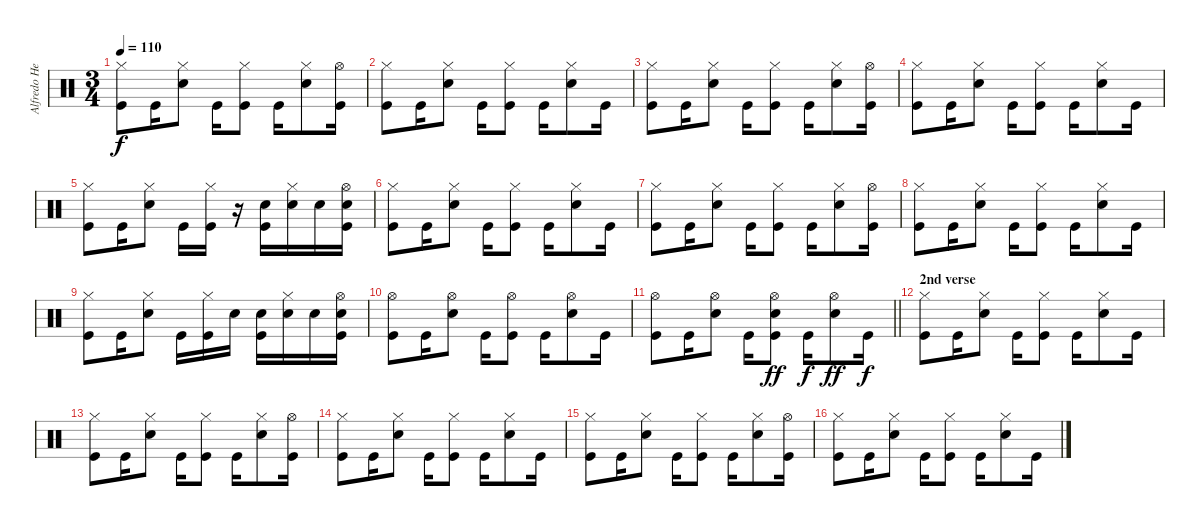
\track ("Alfredo Hernandez" "Alfredo He") {instrument percussion}
\staff {score}
\articulation defaults
\ts (3 4)
\tempo 110
\clef neutral
\ks c
("Kick (hit)" "Hi-Hat (closed)").8{dy f} "Kick (hit)".16 ("Electric Snare (hit)" "Hi-Hat (closed)").8 "Kick (hit)".16 ("Kick (hit)" "Hi-Hat (closed)").8 "Kick (hit)".16 ("Electric Snare (hit)" "Hi-Hat (closed)").8 ("Kick (hit)" "Hi-Hat (open)").16 |
("Kick (hit)" "Hi-Hat (closed)").8 "Kick (hit)".16 ("Electric Snare (hit)" "Hi-Hat (closed)").8 "Kick (hit)".16 ("Kick (hit)" "Hi-Hat (closed)").8 "Kick (hit)".16 ("Electric Snare (hit)" "Hi-Hat (closed)").8 "Kick (hit)".16 |
("Kick (hit)" "Hi-Hat (closed)").8 "Kick (hit)".16 ("Electric Snare (hit)" "Hi-Hat (closed)").8 "Kick (hit)".16 ("Kick (hit)" "Hi-Hat (closed)").8 "Kick (hit)".16 ("Electric Snare (hit)" "Hi-Hat (closed)").8 ("Kick (hit)" "Hi-Hat (open)").16 |
("Kick (hit)" "Hi-Hat (closed)").8 "Kick (hit)".16 ("Electric Snare (hit)" "Hi-Hat (closed)").8 "Kick (hit)".16 ("Kick (hit)" "Hi-Hat (closed)").8 "Kick (hit)".16 ("Electric Snare (hit)" "Hi-Hat (closed)").8 "Kick (hit)".16 |
("Kick (hit)" "Hi-Hat (closed)").8 "Kick (hit)".16 ("Electric Snare (hit)" "Hi-Hat (closed)").8 "Kick (hit)".16 ("Kick (hit)" "Hi-Hat (closed)").16 r.16 ("Kick (hit)" "Electric Snare (hit)").16 ("Electric Snare (hit)" "Hi-Hat (closed)").16 "Electric Snare (hit)".16 ("Kick (hit)" "Electric Snare (hit)" "Hi-Hat (open)").16 |
("Kick (hit)" "Hi-Hat (closed)").8 "Kick (hit)".16 ("Electric Snare (hit)" "Hi-Hat (closed)").8 "Kick (hit)".16 ("Kick (hit)" "Hi-Hat (closed)").8 "Kick (hit)".16 ("Electric Snare (hit)" "Hi-Hat (closed)").8 "Kick (hit)".16 |
("Kick (hit)" "Hi-Hat (closed)").8 "Kick (hit)".16 ("Electric Snare (hit)" "Hi-Hat (closed)").8 "Kick (hit)".16 ("Kick (hit)" "Hi-Hat (closed)").8 "Kick (hit)".16 ("Electric Snare (hit)" "Hi-Hat (closed)").8 ("Kick (hit)" "Hi-Hat (open)").16 |
("Kick (hit)" "Hi-Hat (closed)").8 "Kick (hit)".16 ("Electric Snare (hit)" "Hi-Hat (closed)").8 "Kick (hit)".16 ("Kick (hit)" "Hi-Hat (closed)").8 "Kick (hit)".16 ("Electric Snare (hit)" "Hi-Hat (closed)").8 "Kick (hit)".16 |
("Kick (hit)" "Hi-Hat (closed)").8 "Kick (hit)".16 ("Electric Snare (hit)" "Hi-Hat (closed)").8 "Kick (hit)".16 ("Kick (hit)" "Hi-Hat (closed)").16 "Electric Snare (hit)".16 ("Kick (hit)" "Electric Snare (hit)").16 ("Electric Snare (hit)" "Hi-Hat (closed)").16 "Electric Snare (hit)".16 ("Kick (hit)" "Electric Snare (hit)" "Hi-Hat (open)").16 |
("Kick (hit)" "Hi-Hat (open)").8 "Kick (hit)".16 ("Electric Snare (hit)" "Hi-Hat (open)").8 "Kick (hit)".16 ("Kick (hit)" "Hi-Hat (open)").8 "Kick (hit)".16 ("Electric Snare (hit)" "Hi-Hat (open)").8 "Kick (hit)".16 |
\barLineRight lightlight
("Kick (hit)" "Hi-Hat (open)").8 "Kick (hit)".16 ("Electric Snare (hit)" "Hi-Hat (open)").8 "Kick (hit)".16 ("Kick (hit)" "Electric Snare (hit)" "Hi-Hat (open)").8{dy ff} "Kick (hit)".16{dy f} ("Electric Snare (hit)" "Hi-Hat (open)").8{dy ff} "Kick (hit)".16{dy f} |
\section ("" "2nd verse")
("Kick (hit)" "Hi-Hat (closed)").8 "Kick (hit)".16 ("Electric Snare (hit)" "Hi-Hat (closed)").8 "Kick (hit)".16 ("Kick (hit)" "Hi-Hat (closed)").8 "Kick (hit)".16 ("Electric Snare (hit)" "Hi-Hat (closed)").8 "Kick (hit)".16 |
("Kick (hit)" "Hi-Hat (closed)").8 "Kick (hit)".16 ("Electric Snare (hit)" "Hi-Hat (closed)").8 "Kick (hit)".16 ("Kick (hit)" "Hi-Hat (closed)").8 "Kick (hit)".16 ("Electric Snare (hit)" "Hi-Hat (closed)").8 ("Kick (hit)" "Hi-Hat (open)").16 |
("Kick (hit)" "Hi-Hat (closed)").8 "Kick (hit)".16 ("Electric Snare (hit)" "Hi-Hat (closed)").8 "Kick (hit)".16 ("Kick (hit)" "Hi-Hat (closed)").8 "Kick (hit)".16 ("Electric Snare (hit)" "Hi-Hat (closed)").8 "Kick (hit)".16 |
("Kick (hit)" "Hi-Hat (closed)").8 "Kick (hit)".16 ("Electric Snare (hit)" "Hi-Hat (closed)").8 "Kick (hit)".16 ("Kick (hit)" "Hi-Hat (closed)").8 "Kick (hit)".16 ("Electric Snare (hit)" "Hi-Hat (closed)").8 ("Kick (hit)" "Hi-Hat (open)").16 |
("Kick (hit)" "Hi-Hat (closed)").8 "Kick (hit)".16 ("Electric Snare (hit)" "Hi-Hat (closed)").8 "Kick (hit)".16 ("Kick (hit)" "Hi-Hat (closed)").8 "Kick (hit)".16 ("Electric Snare (hit)" "Hi-Hat (closed)").8 "Kick (hit)".16
